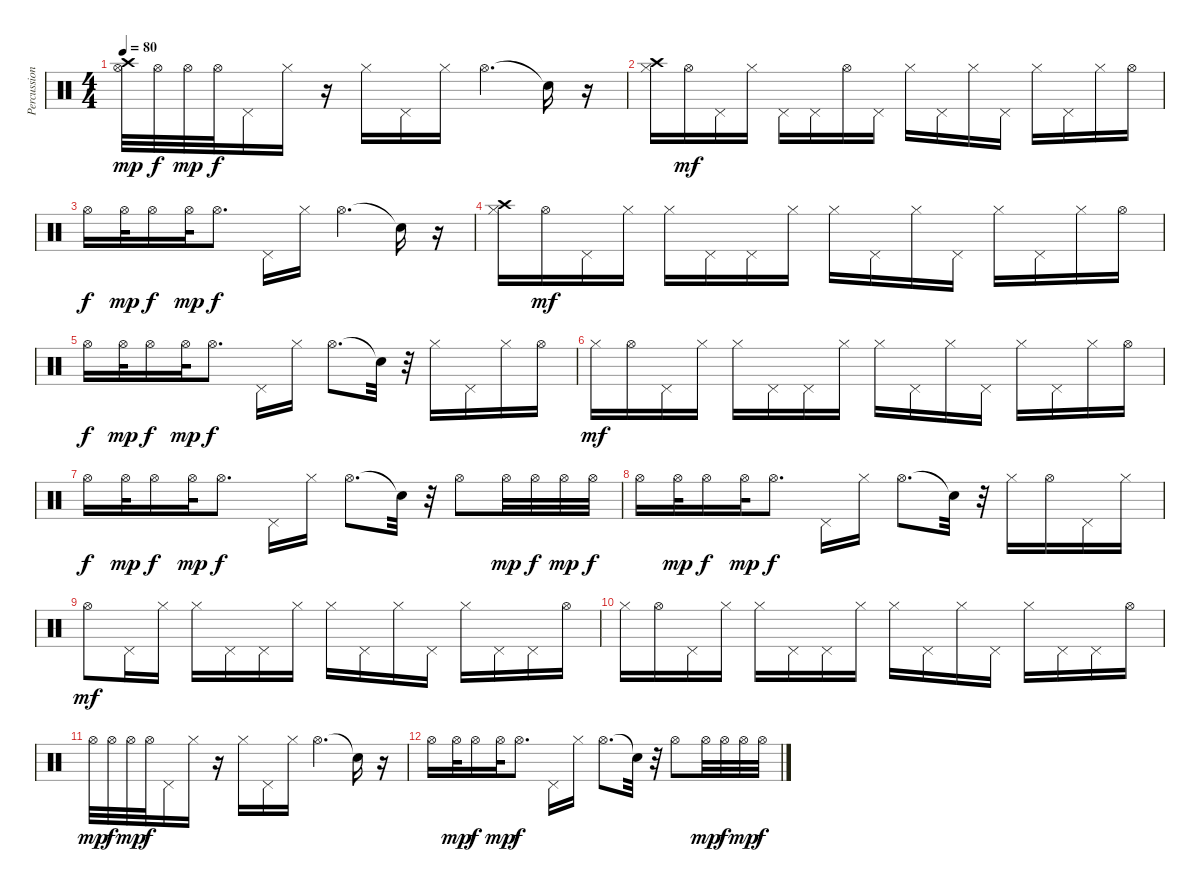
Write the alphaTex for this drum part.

\track ("Percussion" "Percussion") {instrument percussion}
\staff {score}
\articulation defaults
\ts (4 4)
\tempo 80
\clef neutral
\ks c
("Hi-Hat (open)" "Crash high (hit)").32{dy mp} "Hi-Hat (open)".32{dy f} "Hi-Hat (open)".32{dy mp} "Hi-Hat (open)".32{dy f} "Pedal Hi-Hat (hit)".16 "Hi-Hat (closed)".16 r.16 "Hi-Hat (closed)".16 "Pedal Hi-Hat (hit)".16 "Hi-Hat (closed)".16 "Hi-Hat (open)".4{d} "Snare (hit)"{t}.16 r.16 |
("Hi-Hat (closed)" "Crash high (hit)").16 "Hi-Hat (open)".16{dy mf} "Pedal Hi-Hat (hit)".16 "Hi-Hat (closed)".16 "Pedal Hi-Hat (hit)".16 "Pedal Hi-Hat (hit)".16 "Hi-Hat (open)".16 "Pedal Hi-Hat (hit)".16 "Hi-Hat (closed)".16 "Pedal Hi-Hat (hit)".16 "Hi-Hat (closed)".16 "Pedal Hi-Hat (hit)".16 "Hi-Hat (closed)".16 "Pedal Hi-Hat (hit)".16 "Hi-Hat (closed)".16 "Hi-Hat (open)".16 |
"Hi-Hat (open)".16{dy f} "Hi-Hat (open)".32{dy mp} "Hi-Hat (open)".16{dy f} "Hi-Hat (open)".32{dy mp} "Hi-Hat (open)".8{d dy f} "Pedal Hi-Hat (hit)".16 "Hi-Hat (closed)".16 "Hi-Hat (open)".4{d} "Snare (hit)"{t}.16 r.16 |
("Hi-Hat (closed)" "Crash high (hit)").16 "Hi-Hat (open)".16{dy mf} "Pedal Hi-Hat (hit)".16 "Hi-Hat (closed)".16 "Hi-Hat (closed)".16 "Pedal Hi-Hat (hit)".16 "Pedal Hi-Hat (hit)".16 "Hi-Hat (closed)".16 "Hi-Hat (closed)".16 "Pedal Hi-Hat (hit)".16 "Hi-Hat (closed)".16 "Pedal Hi-Hat (hit)".16 "Hi-Hat (closed)".16 "Pedal Hi-Hat (hit)".16 "Hi-Hat (closed)".16 "Hi-Hat (open)".16 |
"Hi-Hat (open)".16{dy f} "Hi-Hat (open)".32{dy mp} "Hi-Hat (open)".16{dy f} "Hi-Hat (open)".32{dy mp} "Hi-Hat (open)".8{d dy f} "Pedal Hi-Hat (hit)".16 "Hi-Hat (closed)".16 "Hi-Hat (open)".8{d} "Snare (hit)"{t}.32 r.32 "Hi-Hat (closed)".16 "Pedal Hi-Hat (hit)".16 "Hi-Hat (closed)".16 "Hi-Hat (open)".16 |
"Hi-Hat (closed)".16{dy mf} "Hi-Hat (open)".16 "Pedal Hi-Hat (hit)".16 "Hi-Hat (closed)".16 "Hi-Hat (closed)".16 "Pedal Hi-Hat (hit)".16 "Pedal Hi-Hat (hit)".16 "Hi-Hat (closed)".16 "Hi-Hat (closed)".16 "Pedal Hi-Hat (hit)".16 "Hi-Hat (closed)".16 "Pedal Hi-Hat (hit)".16 "Hi-Hat (closed)".16 "Pedal Hi-Hat (hit)".16 "Hi-Hat (closed)".16 "Hi-Hat (open)".16 |
"Hi-Hat (open)".16{dy f} "Hi-Hat (open)".32{dy mp} "Hi-Hat (open)".16{dy f} "Hi-Hat (open)".32{dy mp} "Hi-Hat (open)".8{d dy f} "Pedal Hi-Hat (hit)".16 "Hi-Hat (closed)".16 "Hi-Hat (open)".8{d} "Snare (hit)"{t}.32 r.32 "Hi-Hat (open)".8 "Hi-Hat (open)".32{dy mp} "Hi-Hat (open)".32{dy f} "Hi-Hat (open)".32{dy mp} "Hi-Hat (open)".32{dy f} |
"Hi-Hat (open)".16 "Hi-Hat (open)".32{dy mp} "Hi-Hat (open)".16{dy f} "Hi-Hat (open)".32{dy mp} "Hi-Hat (open)".8{d dy f} "Pedal Hi-Hat (hit)".16 "Hi-Hat (closed)".16 "Hi-Hat (open)".8{d} "Snare (hit)"{t}.32 r.32 "Hi-Hat (closed)".16 "Hi-Hat (open)".16 "Pedal Hi-Hat (hit)".16 "Hi-Hat (closed)".16 |
"Hi-Hat (open)".8{dy mf} "Pedal Hi-Hat (hit)".16 "Hi-Hat (closed)".16 "Hi-Hat (closed)".16 "Pedal Hi-Hat (hit)".16 "Pedal Hi-Hat (hit)".16 "Hi-Hat (closed)".16 "Hi-Hat (closed)".16 "Pedal Hi-Hat (hit)".16 "Hi-Hat (closed)".16 "Pedal Hi-Hat (hit)".16 "Hi-Hat (closed)".16 "Pedal Hi-Hat (hit)".16 "Pedal Hi-Hat (hit)".16 "Hi-Hat (open)".16 |
"Hi-Hat (closed)".16 "Hi-Hat (open)".16 "Pedal Hi-Hat (hit)".16 "Hi-Hat (closed)".16 "Hi-Hat (closed)".16 "Pedal Hi-Hat (hit)".16 "Pedal Hi-Hat (hit)".16 "Hi-Hat (closed)".16 "Hi-Hat (closed)".16 "Pedal Hi-Hat (hit)".16 "Hi-Hat (closed)".16 "Pedal Hi-Hat (hit)".16 "Hi-Hat (closed)".16 "Pedal Hi-Hat (hit)".16 "Pedal Hi-Hat (hit)".16 "Hi-Hat (open)".16 |
"Hi-Hat (open)".32{dy mp} "Hi-Hat (open)".32{dy f} "Hi-Hat (open)".32{dy mp} "Hi-Hat (open)".32{dy f} "Pedal Hi-Hat (hit)".16 "Hi-Hat (closed)".16 r.16 "Hi-Hat (closed)".16 "Pedal Hi-Hat (hit)".16 "Hi-Hat (closed)".16 "Hi-Hat (open)".4{d} "Snare (hit)"{t}.16 r.16 |
"Hi-Hat (open)".16 "Hi-Hat (open)".32{dy mp} "Hi-Hat (open)".16{dy f} "Hi-Hat (open)".32{dy mp} "Hi-Hat (open)".8{d dy f} "Pedal Hi-Hat (hit)".16 "Hi-Hat (closed)".16 "Hi-Hat (open)".8{d} "Snare (hit)"{t}.32 r.32 "Hi-Hat (open)".8 "Hi-Hat (open)".32{dy mp} "Hi-Hat (open)".32{dy f} "Hi-Hat (open)".32{dy mp} "Hi-Hat (open)".32{dy f}
